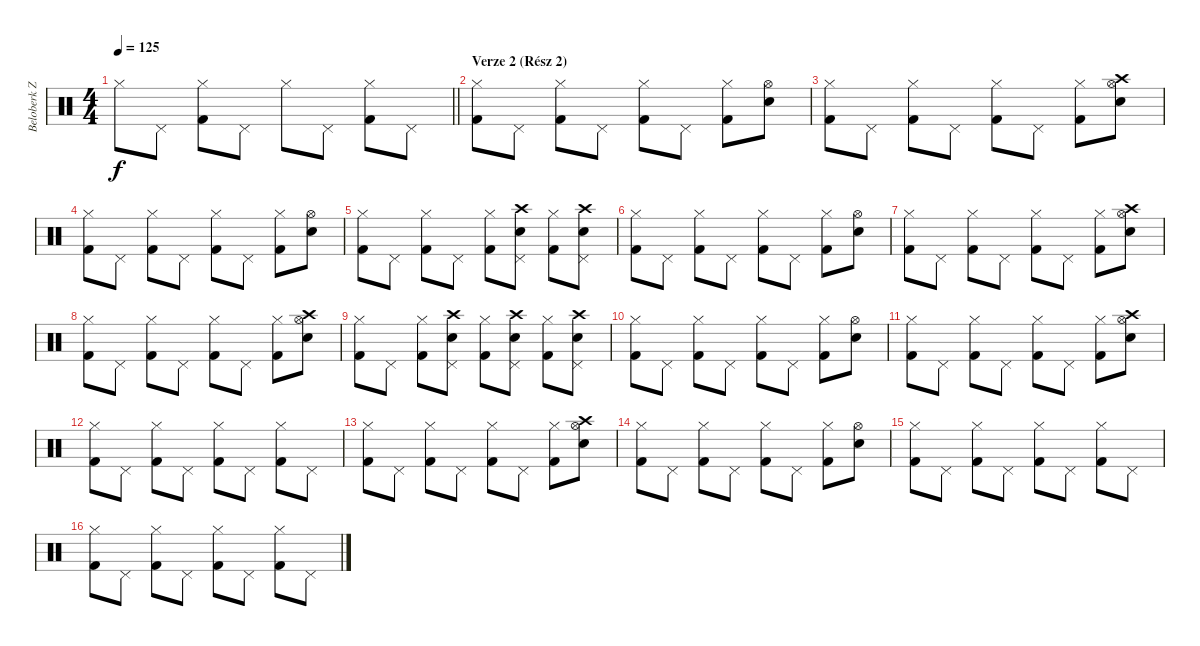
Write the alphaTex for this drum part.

\track ("Beloberk Zsolt - Dobok" "Beloberk Z") {instrument percussion}
\staff {score}
\articulation defaults
\ts (4 4)
\tempo 125
\clef neutral
\barLineRight lightlight
\ks c "Hi-Hat (closed)".8{dy f} "Pedal Hi-Hat (hit)".8
("Hi-Hat (closed)" "Kick (hit) 2").8 "Pedal Hi-Hat (hit)".8 "Hi-Hat (closed)".8 "Pedal Hi-Hat (hit)".8 ("Hi-Hat (closed)" "Kick (hit) 2").8 "Pedal Hi-Hat (hit)".8 |
\section ("" "Verze 2 (Rész 2)")
("Hi-Hat (closed)" "Kick (hit) 2").8 "Pedal Hi-Hat (hit)".8 ("Hi-Hat (closed)" "Kick (hit) 2").8 "Pedal Hi-Hat (hit)".8 ("Hi-Hat (closed)" "Kick (hit) 2").8 "Pedal Hi-Hat (hit)".8 ("Hi-Hat (closed)" "Kick (hit) 2").8 ("Hi-Hat (open)" "Electric Snare (hit)").8 |
("Hi-Hat (closed)" "Kick (hit) 2").8 "Pedal Hi-Hat (hit)".8 ("Hi-Hat (closed)" "Kick (hit) 2").8 "Pedal Hi-Hat (hit)".8 ("Hi-Hat (closed)" "Kick (hit) 2").8 "Pedal Hi-Hat (hit)".8 ("Hi-Hat (closed)" "Kick (hit) 2").8 ("Crash high (hit)" "Hi-Hat (open)" "Electric Snare (hit)").8 |
("Hi-Hat (closed)" "Kick (hit) 2").8 "Pedal Hi-Hat (hit)".8 ("Hi-Hat (closed)" "Kick (hit) 2").8 "Pedal Hi-Hat (hit)".8 ("Hi-Hat (closed)" "Kick (hit) 2").8 "Pedal Hi-Hat (hit)".8 ("Hi-Hat (closed)" "Kick (hit) 2").8 ("Hi-Hat (open)" "Electric Snare (hit)").8 |
("Hi-Hat (closed)" "Kick (hit) 2").8 "Pedal Hi-Hat (hit)".8 ("Hi-Hat (closed)" "Kick (hit) 2").8 "Pedal Hi-Hat (hit)".8 ("Hi-Hat (closed)" "Kick (hit) 2").8 ("Crash high (hit)" "Pedal Hi-Hat (hit)" "Electric Snare (hit)").8 ("Hi-Hat (closed)" "Kick (hit) 2").8 ("Crash high (hit)" "Pedal Hi-Hat (hit)" "Electric Snare (hit)").8 |
("Hi-Hat (closed)" "Kick (hit) 2").8 "Pedal Hi-Hat (hit)".8 ("Hi-Hat (closed)" "Kick (hit) 2").8 "Pedal Hi-Hat (hit)".8 ("Hi-Hat (closed)" "Kick (hit) 2").8 "Pedal Hi-Hat (hit)".8 ("Hi-Hat (closed)" "Kick (hit) 2").8 ("Hi-Hat (open)" "Electric Snare (hit)").8 |
("Hi-Hat (closed)" "Kick (hit) 2").8 "Pedal Hi-Hat (hit)".8 ("Hi-Hat (closed)" "Kick (hit) 2").8 "Pedal Hi-Hat (hit)".8 ("Hi-Hat (closed)" "Kick (hit) 2").8 "Pedal Hi-Hat (hit)".8 ("Hi-Hat (closed)" "Kick (hit) 2").8 ("Crash high (hit)" "Hi-Hat (open)" "Electric Snare (hit)").8 |
("Hi-Hat (closed)" "Kick (hit) 2").8 "Pedal Hi-Hat (hit)".8 ("Hi-Hat (closed)" "Kick (hit) 2").8 "Pedal Hi-Hat (hit)".8 ("Hi-Hat (closed)" "Kick (hit) 2").8 "Pedal Hi-Hat (hit)".8 ("Hi-Hat (closed)" "Kick (hit) 2").8 ("Crash high (hit)" "Hi-Hat (open)" "Electric Snare (hit)").8 |
("Hi-Hat (closed)" "Kick (hit) 2").8 "Pedal Hi-Hat (hit)".8 ("Hi-Hat (closed)" "Kick (hit) 2").8 ("Crash high (hit)" "Pedal Hi-Hat (hit)" "Electric Snare (hit)").8 ("Hi-Hat (closed)" "Kick (hit) 2").8 ("Crash high (hit)" "Pedal Hi-Hat (hit)" "Electric Snare (hit)").8 ("Hi-Hat (closed)" "Kick (hit) 2").8 ("Crash high (hit)" "Pedal Hi-Hat (hit)" "Electric Snare (hit)").8 |
("Hi-Hat (closed)" "Kick (hit) 2").8 "Pedal Hi-Hat (hit)".8 ("Hi-Hat (closed)" "Kick (hit) 2").8 "Pedal Hi-Hat (hit)".8 ("Hi-Hat (closed)" "Kick (hit) 2").8 "Pedal Hi-Hat (hit)".8 ("Hi-Hat (closed)" "Kick (hit) 2").8 ("Hi-Hat (open)" "Electric Snare (hit)").8 |
("Hi-Hat (closed)" "Kick (hit) 2").8 "Pedal Hi-Hat (hit)".8 ("Hi-Hat (closed)" "Kick (hit) 2").8 "Pedal Hi-Hat (hit)".8 ("Hi-Hat (closed)" "Kick (hit) 2").8 "Pedal Hi-Hat (hit)".8 ("Hi-Hat (closed)" "Kick (hit) 2").8 ("Crash high (hit)" "Hi-Hat (open)" "Electric Snare (hit)").8 |
("Hi-Hat (closed)" "Kick (hit) 2").8 "Pedal Hi-Hat (hit)".8 ("Hi-Hat (closed)" "Kick (hit) 2").8 "Pedal Hi-Hat (hit)".8 ("Hi-Hat (closed)" "Kick (hit) 2").8 "Pedal Hi-Hat (hit)".8 ("Hi-Hat (closed)" "Kick (hit) 2").8 "Pedal Hi-Hat (hit)".8 |
("Hi-Hat (closed)" "Kick (hit) 2").8 "Pedal Hi-Hat (hit)".8 ("Hi-Hat (closed)" "Kick (hit) 2").8 "Pedal Hi-Hat (hit)".8 ("Hi-Hat (closed)" "Kick (hit) 2").8 "Pedal Hi-Hat (hit)".8 ("Hi-Hat (closed)" "Kick (hit) 2").8 ("Crash high (hit)" "Hi-Hat (open)" "Electric Snare (hit)").8 |
("Hi-Hat (closed)" "Kick (hit) 2").8 "Pedal Hi-Hat (hit)".8 ("Hi-Hat (closed)" "Kick (hit) 2").8 "Pedal Hi-Hat (hit)".8 ("Hi-Hat (closed)" "Kick (hit) 2").8 "Pedal Hi-Hat (hit)".8 ("Hi-Hat (closed)" "Kick (hit) 2").8 ("Hi-Hat (open)" "Electric Snare (hit)").8 |
("Hi-Hat (closed)" "Kick (hit) 2").8 "Pedal Hi-Hat (hit)".8 ("Hi-Hat (closed)" "Kick (hit) 2").8 "Pedal Hi-Hat (hit)".8 ("Hi-Hat (closed)" "Kick (hit) 2").8 "Pedal Hi-Hat (hit)".8 ("Hi-Hat (closed)" "Kick (hit) 2").8 "Pedal Hi-Hat (hit)".8 |
("Hi-Hat (closed)" "Kick (hit) 2").8 "Pedal Hi-Hat (hit)".8 ("Hi-Hat (closed)" "Kick (hit) 2").8 "Pedal Hi-Hat (hit)".8 ("Hi-Hat (closed)" "Kick (hit) 2").8 "Pedal Hi-Hat (hit)".8 ("Hi-Hat (closed)" "Kick (hit) 2").8 "Pedal Hi-Hat (hit)".8
